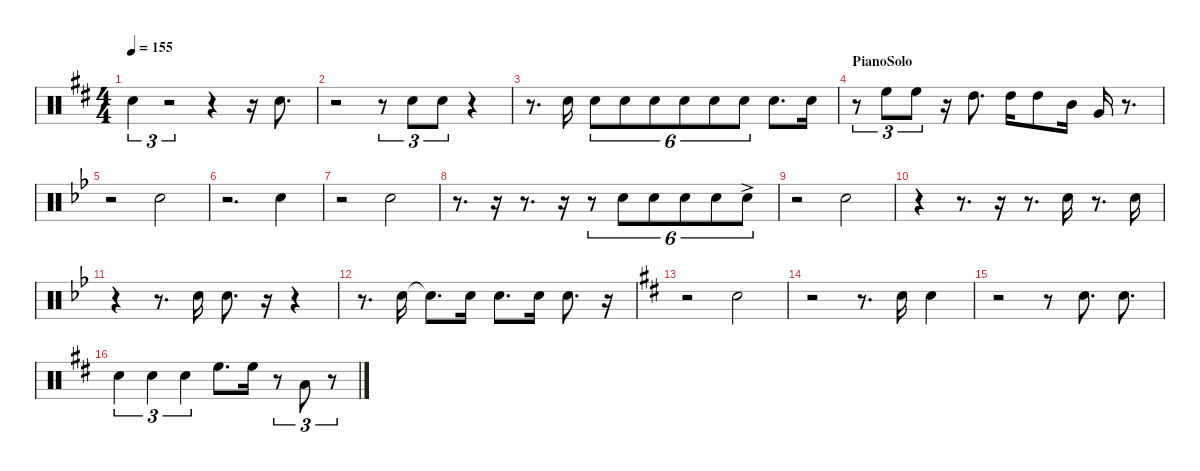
\hideDynamics
\bracketExtendMode nobrackets
\singleTrackTrackNamePolicy hidden
\multiTrackTrackNamePolicy hidden
\otherSystemsTrackNameOrientation horizontal
\track ("Drums" "Drums") {instrument percussion}
\staff {score}
\articulation defaults
\ts (4 4)
\tempo 155
\clef neutral
\ks d "Snare (hit) 2"{acc forcenatural}.4{tu (3 2) dy mf beam Down}
r.2{tu (3 2) beam Down} r.4{beam Down} r.16{beam Down} "Snare (hit) 2"{acc forcenatural}.8{d beam Down} |
r.2{beam Down} r.8{tu (3 2) beam Down} "Snare (hit) 2"{acc forcenatural}.8{tu (3 2) beam Down} "Snare (hit) 2"{acc forcenatural}.8{tu (3 2) beam Down} r.4{beam Down} |
r.8{d beam Down} "Snare (hit) 2"{acc forcenatural}.16{dy p beam Down} "Snare (hit) 2"{acc forcenatural}.8{tu (6 4) beam Down} "Snare (hit) 2"{acc forcenatural}.8{tu (6 4) beam Down} "Snare (hit) 2"{acc forcenatural}.8{tu (6 4) beam Down} "Snare (hit) 2"{acc forcenatural}.8{tu (6 4) dy mp beam Down} "Snare (hit) 2"{acc forcenatural}.8{tu (6 4) beam Down} "Snare (hit) 2"{acc forcenatural}.8{tu (6 4) beam Down} "Snare (hit) 2"{acc forcenatural}.8{d dy mf beam Down} "Snare (hit) 2"{acc forcenatural}.16{dy mp beam Down} |
\section ("" "PianoSolo")
r.8{tu (3 2) beam Down} "High Floor Tom (hit)"{acc forcenatural}.8{tu (3 2) beam Down} "High Floor Tom (hit)"{acc forcenatural}.8{tu (3 2) beam Down} r.16{beam Down} "High Tom (hit)"{acc forcenatural}.8{d dy p beam Down} "High Tom (hit)"{acc forcenatural}.16{beam Down} "High Tom (hit)"{acc forcenatural}.8{beam Down} "Mid Tom (hit)"{acc forcenatural}.16{beam Down} "Very Low Tom (hit)"{acc forcenatural}.16{dy mp beam Up} r.8{d beam Up} |
\ks bb
r.2{beam Down} "Snare (hit) 2"{acc forcenatural}.2{beam Down} |
r.2{d beam Down} "Snare (hit) 2"{acc forcenatural}.4{beam Down} |
r.2{beam Down} "Snare (hit) 2"{acc forcenatural}.2{beam Down} |
r.8{d beam Down} r.16{beam Down} r.8{d beam Down} r.16{beam Down} r.8{tu (6 4) beam Down} "Snare (hit) 2"{acc forcenatural}.8{tu (6 4) dy p beam Down} "Snare (hit) 2"{acc forcenatural}.8{tu (6 4) beam Down} "Snare (hit) 2"{acc forcenatural}.8{tu (6 4) dy mp beam Down} "Snare (hit) 2"{acc forcenatural}.8{tu (6 4) beam Down} "Snare (hit) 2"{ac acc forcenatural}.8{tu (6 4) beam Down} |
r.2{beam Down} "Snare (hit) 2"{acc forcenatural}.2{beam Down} |
r.4{beam Down} r.8{d beam Down} r.16{beam Down} r.8{d beam Down} "Snare (hit) 2"{acc forcenatural}.16{beam Down} r.8{d beam Down} "Snare (hit) 2"{acc forcenatural}.16{beam Down} |
r.4{beam Down} r.8{d beam Down} "Snare (hit) 2"{acc forcenatural}.16{beam Down} "Snare (hit) 2"{acc forcenatural}.8{d beam Down} r.16{beam Down} r.4{beam Down} |
r.8{d beam Down} "Snare (hit) 2"{acc forcenatural}.16{beam Down} "Snare (hit) 2"{t acc forcenatural}.8{d beam Down} "Snare (hit) 2"{acc forcenatural}.16{beam Down} "Snare (hit) 2"{acc forcenatural}.8{d dy p beam Down} "Snare (hit) 2"{acc forcenatural}.16{dy mp beam Down} "Snare (hit) 2"{acc forcenatural}.8{d dy p beam Down} r.16{beam Down} |
\ks d
r.2{beam Down} "Snare (hit) 2"{acc forcenatural}.2{dy mp beam Down} |
r.2{beam Down} r.8{d beam Down} "Snare (hit) 2"{acc forcenatural}.16{beam Down} "Snare (hit) 2"{acc forcenatural}.4{beam Down} |
r.2{beam Down} r.8{beam Down} "Snare (hit) 2"{acc forcenatural}.8{d beam Down} "Snare (hit) 2"{acc forcenatural}.8{d beam Down} |
"Snare (hit) 2"{acc forcenatural}.4{tu (3 2) beam Down} "Snare (hit) 2"{acc forcenatural}.4{tu (3 2) beam Down} "Snare (hit) 2"{acc forcenatural}.4{tu (3 2) beam Down} "High Floor Tom (hit)"{acc forcenatural}.8{d beam Down} "High Floor Tom (hit)"{acc forcenatural}.16{beam Down} r.8{tu (3 2) beam Down} "Low Tom (hit)"{acc forcenatural}.8{tu (3 2) beam Up} r.8{tu (3 2) beam Up}
